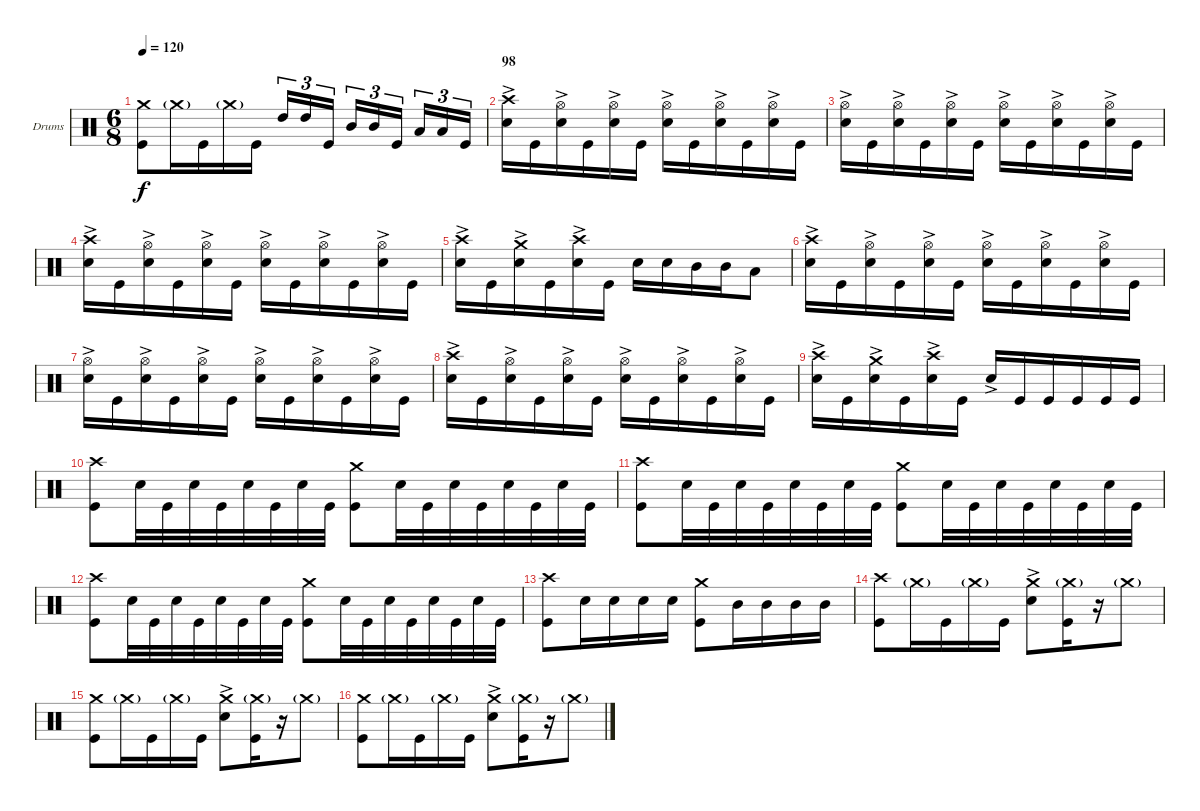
\bracketExtendMode groupsimilarinstruments
\firstSystemTrackNameOrientation horizontal
\otherSystemsTrackNameOrientation horizontal
\track ("Drumkit" "Drums") {instrument percussion}
\staff {score}
\articulation defaults
\ts (6 8)
\tempo 120
\clef neutral
\ks c
("Kick (hit)" "Crash medium (hit)").8{dy f} "Crash medium (hit)"{g}.16 "Kick (hit)".16 "Crash medium (hit)"{g}.16 "Kick (hit)".16 "High Tom (hit)".16{tu (3 2)} "High Tom (hit)".16{tu (3 2)} "Kick (hit)".16{tu (3 2)} "Mid Tom (hit)".16{tu (3 2)} "Mid Tom (hit)".16{tu (3 2)} "Kick (hit)".16{tu (3 2)} "Low Tom (hit)".16{tu (3 2)} "Low Tom (hit)".16{tu (3 2)} "Kick (hit)".16{tu (3 2)} |
\section ("" "98")
("Snare (hit) 2"{ac} "Crash high (hit)").16 "Kick (hit)".16 ("Snare (hit) 2"{ac} "Hi-Hat (open)").16 "Kick (hit)".16 ("Snare (hit) 2"{ac} "Hi-Hat (open)").16 "Kick (hit)".16 ("Snare (hit) 2"{ac} "Hi-Hat (open)").16 "Kick (hit)".16 ("Snare (hit) 2"{ac} "Hi-Hat (open)").16 "Kick (hit)".16 ("Snare (hit) 2"{ac} "Hi-Hat (open)").16 "Kick (hit)".16 |
("Snare (hit) 2"{ac} "Hi-Hat (open)").16 "Kick (hit)".16 ("Snare (hit) 2"{ac} "Hi-Hat (open)").16 "Kick (hit)".16 ("Snare (hit) 2"{ac} "Hi-Hat (open)").16 "Kick (hit)".16 ("Snare (hit) 2"{ac} "Hi-Hat (open)").16 "Kick (hit)".16 ("Snare (hit) 2"{ac} "Hi-Hat (open)").16 "Kick (hit)".16 ("Snare (hit) 2"{ac} "Hi-Hat (open)").16 "Kick (hit)".16 |
("Snare (hit) 2"{ac} "Crash high (hit)").16 "Kick (hit)".16 ("Snare (hit) 2"{ac} "Hi-Hat (open)").16 "Kick (hit)".16 ("Snare (hit) 2"{ac} "Hi-Hat (open)").16 "Kick (hit)".16 ("Snare (hit) 2"{ac} "Hi-Hat (open)").16 "Kick (hit)".16 ("Snare (hit) 2"{ac} "Hi-Hat (open)").16 "Kick (hit)".16 ("Snare (hit) 2"{ac} "Hi-Hat (open)").16 "Kick (hit)".16 |
("Snare (hit) 2"{ac} "Crash high (hit)").16 "Kick (hit)".16 ("Snare (hit) 2"{ac} "Crash medium (hit)").16 "Kick (hit)".16 ("Snare (hit) 2"{ac} "Crash high (hit)").16 "Kick (hit)".16 "Snare (hit) 2".16 "Snare (hit) 2".16 "Mid Tom (hit)".16 "Mid Tom (hit)".16 "Low Tom (hit)".8 |
("Snare (hit) 2"{ac} "Crash high (hit)").16 "Kick (hit)".16 ("Snare (hit) 2"{ac} "Hi-Hat (open)").16 "Kick (hit)".16 ("Snare (hit) 2"{ac} "Hi-Hat (open)").16 "Kick (hit)".16 ("Snare (hit) 2"{ac} "Hi-Hat (open)").16 "Kick (hit)".16 ("Snare (hit) 2"{ac} "Hi-Hat (open)").16 "Kick (hit)".16 ("Snare (hit) 2"{ac} "Hi-Hat (open)").16 "Kick (hit)".16 |
("Snare (hit) 2"{ac} "Hi-Hat (open)").16 "Kick (hit)".16 ("Snare (hit) 2"{ac} "Hi-Hat (open)").16 "Kick (hit)".16 ("Snare (hit) 2"{ac} "Hi-Hat (open)").16 "Kick (hit)".16 ("Snare (hit) 2"{ac} "Hi-Hat (open)").16 "Kick (hit)".16 ("Snare (hit) 2"{ac} "Hi-Hat (open)").16 "Kick (hit)".16 ("Snare (hit) 2"{ac} "Hi-Hat (open)").16 "Kick (hit)".16 |
("Snare (hit) 2"{ac} "Crash high (hit)").16 "Kick (hit)".16 ("Snare (hit) 2"{ac} "Hi-Hat (open)").16 "Kick (hit)".16 ("Snare (hit) 2"{ac} "Hi-Hat (open)").16 "Kick (hit)".16 ("Snare (hit) 2"{ac} "Hi-Hat (open)").16 "Kick (hit)".16 ("Snare (hit) 2"{ac} "Hi-Hat (open)").16 "Kick (hit)".16 ("Snare (hit) 2"{ac} "Hi-Hat (open)").16 "Kick (hit)".16 |
("Snare (hit) 2"{ac} "Crash high (hit)").16 "Kick (hit)".16 ("Snare (hit) 2"{ac} "Crash medium (hit)").16 "Kick (hit)".16 ("Snare (hit) 2"{ac} "Crash high (hit)").16 "Kick (hit)".16 "Snare (hit) 2"{ac}.16 "Kick (hit)".16 "Kick (hit)".16 "Kick (hit)".16 "Kick (hit)".16 "Kick (hit)".16 |
("Kick (hit)" "Crash high (hit)").8 "Snare (hit) 2".32 "Kick (hit)".32 "Snare (hit) 2".32 "Kick (hit)".32 "Snare (hit) 2".32 "Kick (hit)".32 "Snare (hit) 2".32 "Kick (hit)".32 ("Kick (hit)" "Crash medium (hit)").8 "Snare (hit) 2".32 "Kick (hit)".32 "Snare (hit) 2".32 "Kick (hit)".32 "Snare (hit) 2".32 "Kick (hit)".32 "Snare (hit) 2".32 "Kick (hit)".32 |
("Kick (hit)" "Crash high (hit)").8 "Snare (hit) 2".32 "Kick (hit)".32 "Snare (hit) 2".32 "Kick (hit)".32 "Snare (hit) 2".32 "Kick (hit)".32 "Snare (hit) 2".32 "Kick (hit)".32 ("Kick (hit)" "Crash medium (hit)").8 "Snare (hit) 2".32 "Kick (hit)".32 "Snare (hit) 2".32 "Kick (hit)".32 "Snare (hit) 2".32 "Kick (hit)".32 "Snare (hit) 2".32 "Kick (hit)".32 |
("Kick (hit)" "Crash high (hit)").8 "Snare (hit) 2".32 "Kick (hit)".32 "Snare (hit) 2".32 "Kick (hit)".32 "Snare (hit) 2".32 "Kick (hit)".32 "Snare (hit) 2".32 "Kick (hit)".32 ("Kick (hit)" "Crash medium (hit)").8 "Snare (hit) 2".32 "Kick (hit)".32 "Snare (hit) 2".32 "Kick (hit)".32 "Snare (hit) 2".32 "Kick (hit)".32 "Snare (hit) 2".32 "Kick (hit)".32 |
("Kick (hit)" "Crash high (hit)").8 "Snare (hit) 2".16 "Snare (hit) 2".16 "Snare (hit) 2".16 "Snare (hit) 2".16 ("Kick (hit)" "Crash medium (hit)").8 "Mid Tom (hit)".16 "Mid Tom (hit)".16 "Mid Tom (hit)".16 "Mid Tom (hit)".16 |
("Kick (hit)" "Crash high (hit)").8 "Crash medium (hit)"{g}.16 "Kick (hit)".16 "Crash medium (hit)"{g}.16 "Kick (hit)".16 ("Snare (hit) 2"{ac} "Crash medium (hit)").8 ("Kick (hit)" "Crash medium (hit)"{g}).16 r.16 "Crash medium (hit)"{g}.8 |
("Kick (hit)" "Crash medium (hit)").8 "Crash medium (hit)"{g}.16 "Kick (hit)".16 "Crash medium (hit)"{g}.16 "Kick (hit)".16 ("Snare (hit) 2"{ac} "Crash medium (hit)").8 ("Kick (hit)" "Crash medium (hit)"{g}).16 r.16 "Crash medium (hit)"{g}.8 |
("Kick (hit)" "Crash medium (hit)").8 "Crash medium (hit)"{g}.16 "Kick (hit)".16 "Crash medium (hit)"{g}.16 "Kick (hit)".16 ("Snare (hit) 2"{ac} "Crash medium (hit)").8 ("Kick (hit)" "Crash medium (hit)"{g}).16 r.16 "Crash medium (hit)"{g}.8
